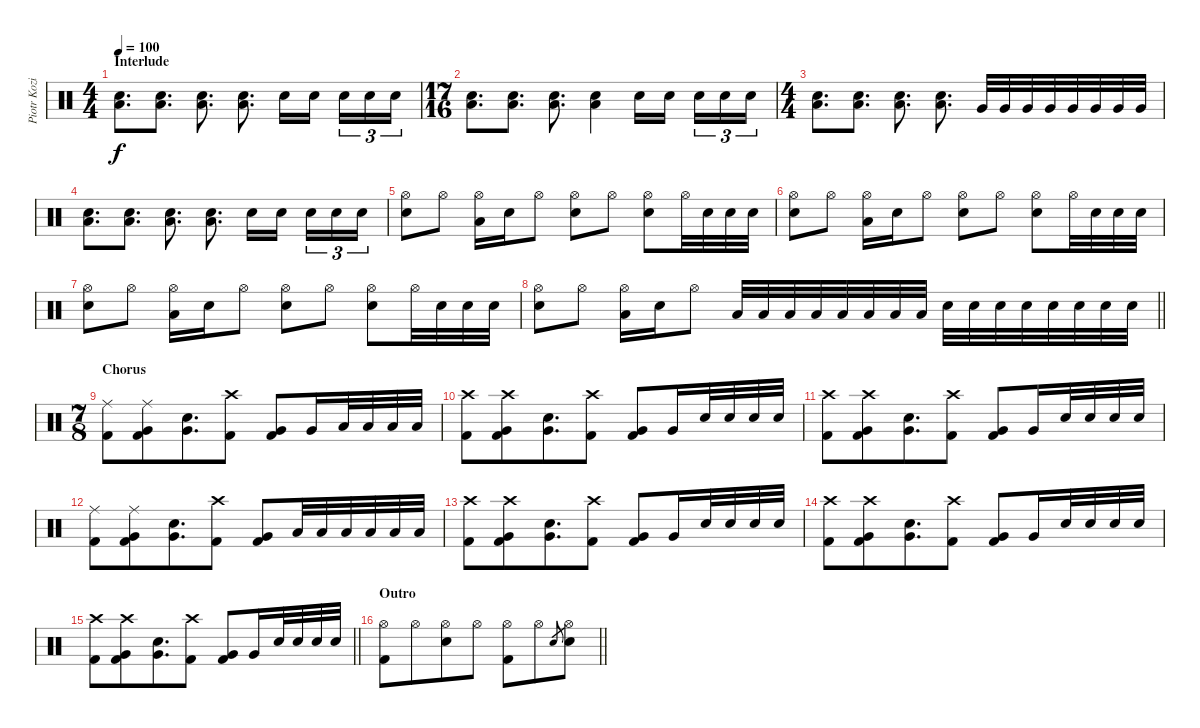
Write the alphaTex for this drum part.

\track ("Piotr Kozieradzki" "Piotr Kozi") {instrument percussion}
\staff {score}
\articulation defaults
\ts (4 4)
\section ("" "Interlude")
\tempo 100
\clef neutral
\ks c
("Snare (hit) 2" "Low Floor Tom (hit)").8{d dy f} ("Snare (hit) 2" "Low Floor Tom (hit)").8{d} ("Snare (hit) 2" "Low Floor Tom (hit)").8{d} ("Snare (hit) 2" "Low Floor Tom (hit)").8{d} "Snare (hit) 2".16 "Snare (hit) 2".16{beam splitsecondary} "Snare (hit) 2".16{tu (3 2)} "Snare (hit) 2".16{tu (3 2)} "Snare (hit) 2".16{tu (3 2)} |
\ts (17 16)
("Snare (hit) 2" "Low Floor Tom (hit)").8{d} ("Snare (hit) 2" "Low Floor Tom (hit)").8{d} ("Snare (hit) 2" "Low Floor Tom (hit)").8{d} ("Snare (hit) 2" "Low Floor Tom (hit)").4 "Snare (hit) 2".16 "Snare (hit) 2".16 "Snare (hit) 2".16{tu (3 2)} "Snare (hit) 2".16{tu (3 2)} "Snare (hit) 2".16{tu (3 2)} |
\ts (4 4)
("Snare (hit) 2" "Low Floor Tom (hit)").8{d} ("Snare (hit) 2" "Low Floor Tom (hit)").8{d} ("Snare (hit) 2" "Low Floor Tom (hit)").8{d} ("Snare (hit) 2" "Low Floor Tom (hit)").8{d} "Very Low Tom (hit)".32 "Very Low Tom (hit)".32 "Very Low Tom (hit)".32 "Very Low Tom (hit)".32 "Very Low Tom (hit)".32 "Very Low Tom (hit)".32 "Very Low Tom (hit)".32 "Very Low Tom (hit)".32 |
("Snare (hit) 2" "Low Floor Tom (hit)").8{d} ("Snare (hit) 2" "Low Floor Tom (hit)").8{d} ("Snare (hit) 2" "Low Floor Tom (hit)").8{d} ("Snare (hit) 2" "Low Floor Tom (hit)").8{d} "Snare (hit) 2".16 "Snare (hit) 2".16{beam splitsecondary} "Snare (hit) 2".16{tu (3 2)} "Snare (hit) 2".16{tu (3 2)} "Snare (hit) 2".16{tu (3 2)} |
("Hi-Hat (open)" "Snare (hit) 2").8 "Hi-Hat (open)".8 ("Hi-Hat (open)" "Low Tom (hit)").16 "Snare (hit) 2".16 "Hi-Hat (open)".8 ("Hi-Hat (open)" "Snare (hit) 2").8 "Hi-Hat (open)".8 ("Hi-Hat (open)" "Snare (hit) 2").8 "Hi-Hat (open)".32 "Snare (hit) 2".32 "Snare (hit) 2".32 "Snare (hit) 2".32 |
("Hi-Hat (open)" "Snare (hit) 2").8 "Hi-Hat (open)".8 ("Hi-Hat (open)" "Low Tom (hit)").16 "Snare (hit) 2".16 "Hi-Hat (open)".8 ("Hi-Hat (open)" "Snare (hit) 2").8 "Hi-Hat (open)".8 ("Hi-Hat (open)" "Snare (hit) 2").8 "Hi-Hat (open)".32 "Snare (hit) 2".32 "Snare (hit) 2".32 "Snare (hit) 2".32 |
("Hi-Hat (open)" "Snare (hit) 2").8 "Hi-Hat (open)".8 ("Hi-Hat (open)" "Low Tom (hit)").16 "Snare (hit) 2".16 "Hi-Hat (open)".8 ("Hi-Hat (open)" "Snare (hit) 2").8 "Hi-Hat (open)".8 ("Hi-Hat (open)" "Snare (hit) 2").8 "Hi-Hat (open)".32 "Snare (hit) 2".32 "Snare (hit) 2".32 "Snare (hit) 2".32 |
\barLineRight lightlight
("Hi-Hat (open)" "Snare (hit) 2").8 "Hi-Hat (open)".8 ("Hi-Hat (open)" "Low Tom (hit)").16 "Snare (hit) 2".16 "Hi-Hat (open)".8 "Low Tom (hit)".32 "Low Tom (hit)".32 "Low Tom (hit)".32 "Low Tom (hit)".32 "Low Tom (hit)".32 "Low Tom (hit)".32 "Low Tom (hit)".32 "Low Tom (hit)".32 "Snare (hit) 2".32 "Snare (hit) 2".32 "Snare (hit) 2".32 "Snare (hit) 2".32 "Snare (hit) 2".32 "Snare (hit) 2".32 "Snare (hit) 2".32 "Snare (hit) 2".32 |
\ts (7 8)
\section ("" "Chorus")
("Ride (middle)" "Kick (hit) 2").8 ("Ride (middle)" "Very Low Tom (hit)" "Kick (hit) 2").8 ("Very Low Tom (hit)" "Snare (hit) 2").8{d} ("Crash high (hit)" "Kick (hit) 2").8 ("Very Low Tom (hit)" "Kick (hit) 2").8 "Very Low Tom (hit)".16 "Low Floor Tom (hit)".32 "Low Floor Tom (hit)".32 "Low Floor Tom (hit)".32 "Low Floor Tom (hit)".32 |
("Crash high (hit)" "Kick (hit) 2").8 ("Crash high (hit)" "Very Low Tom (hit)" "Kick (hit) 2").8 ("Very Low Tom (hit)" "Snare (hit) 2").8{d} ("Crash high (hit)" "Kick (hit) 2").8 ("Very Low Tom (hit)" "Kick (hit) 2").8 "Very Low Tom (hit)".16 "Snare (hit) 2".32 "Snare (hit) 2".32 "Snare (hit) 2".32 "Snare (hit) 2".32 |
("Crash high (hit)" "Kick (hit) 2").8 ("Crash high (hit)" "Very Low Tom (hit)" "Kick (hit) 2").8 ("Very Low Tom (hit)" "Snare (hit) 2").8{d} ("Crash high (hit)" "Kick (hit) 2").8 ("Very Low Tom (hit)" "Kick (hit) 2").8 "Very Low Tom (hit)".16 "Snare (hit) 2".32 "Snare (hit) 2".32 "Snare (hit) 2".32 "Snare (hit) 2".32 |
("Ride (middle)" "Kick (hit) 2").8 ("Ride (middle)" "Very Low Tom (hit)" "Kick (hit) 2").8 ("Very Low Tom (hit)" "Snare (hit) 2").8{d} ("Crash high (hit)" "Kick (hit) 2").8 ("Very Low Tom (hit)" "Kick (hit) 2").8 "Low Floor Tom (hit)".32 "Low Floor Tom (hit)".32 "Low Floor Tom (hit)".32 "Low Floor Tom (hit)".32 "Low Floor Tom (hit)".32 "Low Floor Tom (hit)".32 |
("Crash high (hit)" "Kick (hit) 2").8 ("Crash high (hit)" "Very Low Tom (hit)" "Kick (hit) 2").8 ("Very Low Tom (hit)" "Snare (hit) 2").8{d} ("Crash high (hit)" "Kick (hit) 2").8 ("Very Low Tom (hit)" "Kick (hit) 2").8 "Very Low Tom (hit)".16 "Snare (hit) 2".32 "Snare (hit) 2".32 "Snare (hit) 2".32 "Snare (hit) 2".32 |
("Crash high (hit)" "Kick (hit) 2").8 ("Crash high (hit)" "Very Low Tom (hit)" "Kick (hit) 2").8 ("Very Low Tom (hit)" "Snare (hit) 2").8{d} ("Crash high (hit)" "Kick (hit) 2").8 ("Very Low Tom (hit)" "Kick (hit) 2").8 "Very Low Tom (hit)".16 "Snare (hit) 2".32 "Snare (hit) 2".32 "Snare (hit) 2".32 "Snare (hit) 2".32 |
\barLineRight lightlight
("Crash high (hit)" "Kick (hit) 2").8 ("Crash high (hit)" "Very Low Tom (hit)" "Kick (hit) 2").8 ("Very Low Tom (hit)" "Snare (hit) 2").8{d} ("Crash high (hit)" "Kick (hit) 2").8 ("Very Low Tom (hit)" "Kick (hit) 2").8 "Very Low Tom (hit)".16 "Snare (hit) 2".32 "Snare (hit) 2".32 "Snare (hit) 2".32 "Snare (hit) 2".32 |
\section ("" "Outro")
\barLineRight lightlight
("Hi-Hat (open)" "Kick (hit) 2").8 "Hi-Hat (open)".8 ("Hi-Hat (open)" "Snare (hit) 2").8 "Hi-Hat (open)".8 ("Hi-Hat (open)" "Kick (hit) 2").8 "Hi-Hat (open)".8 "Snare (hit) 2".8{gr} ("Hi-Hat (open)" "Snare (hit) 2").8
